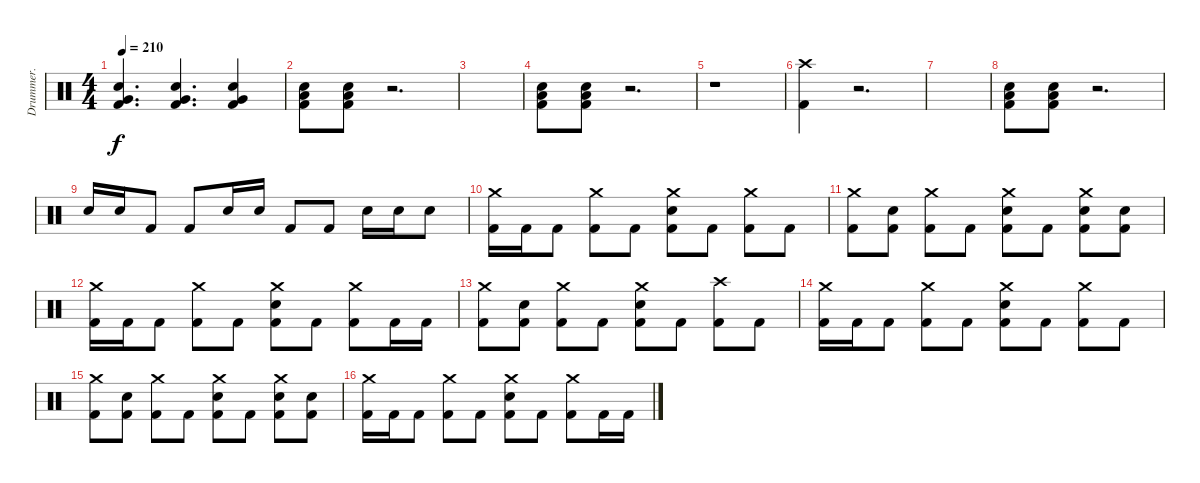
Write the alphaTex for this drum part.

\track ("Drummer." "Drummer.") {instrument percussion}
\staff {score}
\articulation defaults
\ts (4 4)
\tempo 210
\clef neutral
\ks c
("Very Low Tom (hit)" "Snare (hit) 2" "Kick (hit) 2").4{d dy f} ("Very Low Tom (hit)" "Snare (hit) 2" "Kick (hit) 2").4{d} ("Very Low Tom (hit)" "Snare (hit) 2" "Kick (hit) 2").4 |
("Snare (hit) 2" "Kick (hit) 2" "Low Floor Tom (hit)").8 ("Snare (hit) 2" "Kick (hit) 2" "Low Floor Tom (hit)").8 r.2{d} |
|
("Snare (hit) 2" "Kick (hit) 2" "Low Floor Tom (hit)").8 ("Snare (hit) 2" "Kick (hit) 2" "Low Floor Tom (hit)").8 r.2{d} |
r.1 |
("Crash high (hit)" "Kick (hit) 2").4 r.2{d} |
|
("Snare (hit) 2" "Kick (hit) 2" "Low Floor Tom (hit)").8 ("Snare (hit) 2" "Kick (hit) 2" "Low Floor Tom (hit)").8 r.2{d} |
"Snare (hit) 2".16 "Snare (hit) 2".16 "Kick (hit) 2".8 "Kick (hit) 2".8 "Snare (hit) 2".16 "Snare (hit) 2".16 "Kick (hit) 2".8 "Kick (hit) 2".8 "Snare (hit) 2".16 "Snare (hit) 2".16 "Snare (hit) 2".8 |
("Crash medium (hit)" "Kick (hit) 2").16 "Kick (hit) 2".16 "Kick (hit) 2".8 ("Crash medium (hit)" "Kick (hit) 2").8 "Kick (hit) 2".8 ("Crash medium (hit)" "Snare (hit) 2" "Kick (hit) 2").8 "Kick (hit) 2".8 ("Crash medium (hit)" "Kick (hit) 2").8 "Kick (hit) 2".8 |
("Crash medium (hit)" "Kick (hit) 2").8 ("Snare (hit) 2" "Kick (hit) 2").8 ("Crash medium (hit)" "Kick (hit) 2").8 "Kick (hit) 2".8 ("Crash medium (hit)" "Snare (hit) 2" "Kick (hit) 2").8 "Kick (hit) 2".8 ("Crash medium (hit)" "Snare (hit) 2" "Kick (hit) 2").8 ("Snare (hit) 2" "Kick (hit) 2").8 |
("Crash medium (hit)" "Kick (hit) 2").16 "Kick (hit) 2".16 "Kick (hit) 2".8 ("Crash medium (hit)" "Kick (hit) 2").8 "Kick (hit) 2".8 ("Crash medium (hit)" "Snare (hit) 2" "Kick (hit) 2").8 "Kick (hit) 2".8 ("Crash medium (hit)" "Kick (hit) 2").8 "Kick (hit) 2".16 "Kick (hit) 2".16 |
("Crash medium (hit)" "Kick (hit) 2").8 ("Snare (hit) 2" "Kick (hit) 2").8 ("Crash medium (hit)" "Kick (hit) 2").8 "Kick (hit) 2".8 ("Crash medium (hit)" "Snare (hit) 2" "Kick (hit) 2").8 "Kick (hit) 2".8 ("Crash high (hit)" "Kick (hit) 2").8 "Kick (hit) 2".8 |
("Crash medium (hit)" "Kick (hit) 2").16 "Kick (hit) 2".16 "Kick (hit) 2".8 ("Crash medium (hit)" "Kick (hit) 2").8 "Kick (hit) 2".8 ("Crash medium (hit)" "Snare (hit) 2" "Kick (hit) 2").8 "Kick (hit) 2".8 ("Crash medium (hit)" "Kick (hit) 2").8 "Kick (hit) 2".8 |
("Crash medium (hit)" "Kick (hit) 2").8 ("Snare (hit) 2" "Kick (hit) 2").8 ("Crash medium (hit)" "Kick (hit) 2").8 "Kick (hit) 2".8 ("Crash medium (hit)" "Snare (hit) 2" "Kick (hit) 2").8 "Kick (hit) 2".8 ("Crash medium (hit)" "Snare (hit) 2" "Kick (hit) 2").8 ("Snare (hit) 2" "Kick (hit) 2").8 |
("Crash medium (hit)" "Kick (hit) 2").16 "Kick (hit) 2".16 "Kick (hit) 2".8 ("Crash medium (hit)" "Kick (hit) 2").8 "Kick (hit) 2".8 ("Crash medium (hit)" "Snare (hit) 2" "Kick (hit) 2").8 "Kick (hit) 2".8 ("Crash medium (hit)" "Kick (hit) 2").8 "Kick (hit) 2".16 "Kick (hit) 2".16
